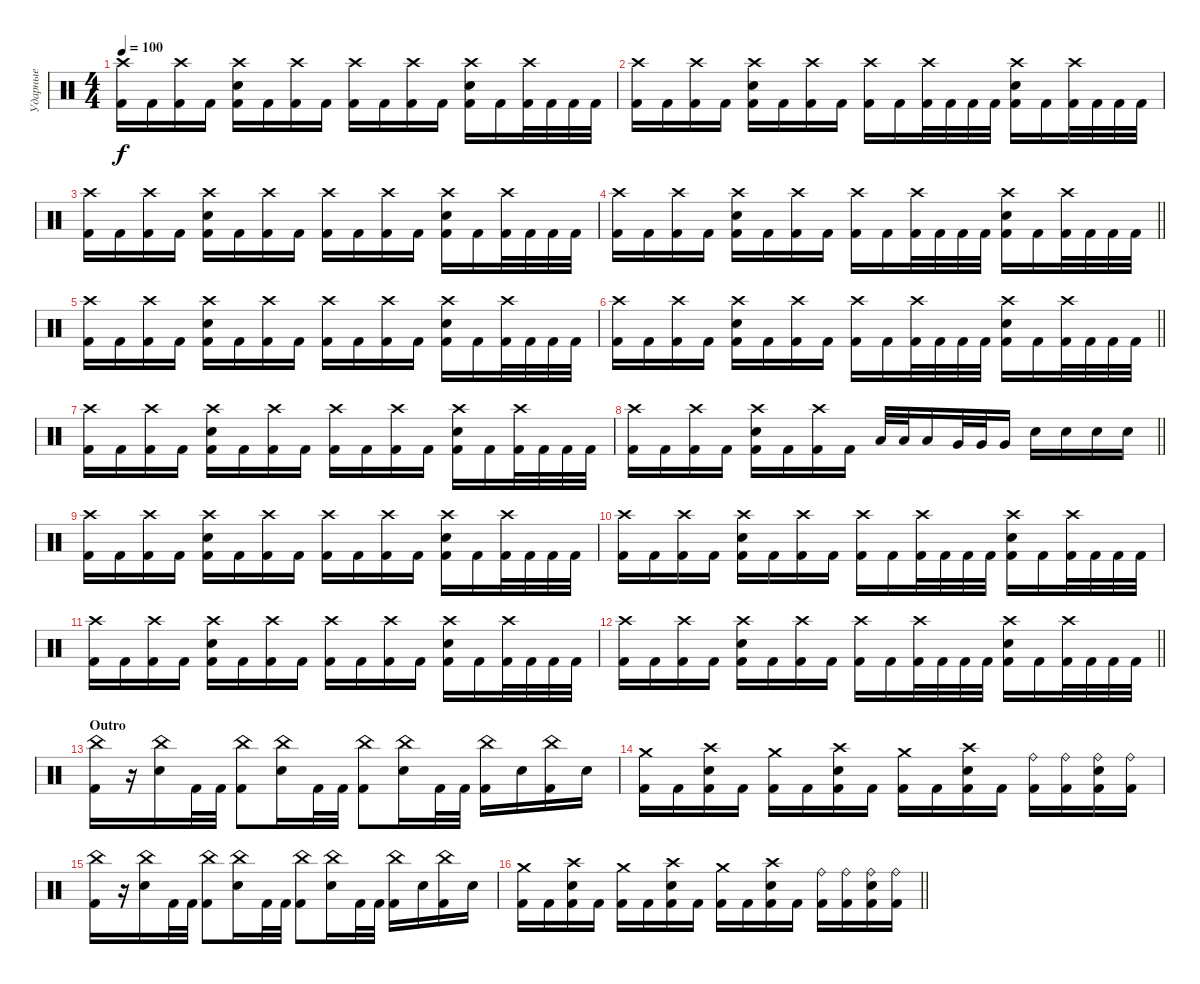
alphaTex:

\track ("Ударные" "Ударные") {instrument percussion}
\staff {score}
\articulation defaults
\ts (4 4)
\tempo 100
\clef neutral
\ks c
("Crash high (hit)" "Kick (hit) 2").16{dy f} "Kick (hit) 2".16 ("Crash high (hit)" "Kick (hit) 2").16 "Kick (hit) 2".16 ("Crash high (hit)" "Electric Snare (hit)" "Kick (hit) 2").16 "Kick (hit) 2".16 ("Crash high (hit)" "Kick (hit) 2").16 "Kick (hit) 2".16 ("Crash high (hit)" "Kick (hit) 2").16 "Kick (hit) 2".16 ("Crash high (hit)" "Kick (hit) 2").16 "Kick (hit) 2".16 ("Crash high (hit)" "Electric Snare (hit)" "Kick (hit) 2").16 "Kick (hit) 2".16 ("Crash high (hit)" "Kick (hit) 2").32 "Kick (hit) 2".32 "Kick (hit) 2".32 "Kick (hit) 2".32 |
("Crash high (hit)" "Kick (hit) 2").16 "Kick (hit) 2".16 ("Crash high (hit)" "Kick (hit) 2").16 "Kick (hit) 2".16 ("Crash high (hit)" "Electric Snare (hit)" "Kick (hit) 2").16 "Kick (hit) 2".16 ("Crash high (hit)" "Kick (hit) 2").16 "Kick (hit) 2".16 ("Crash high (hit)" "Kick (hit) 2").16 "Kick (hit) 2".16 ("Crash high (hit)" "Kick (hit) 2").32 "Kick (hit) 2".32 "Kick (hit) 2".32 "Kick (hit) 2".32 ("Crash high (hit)" "Electric Snare (hit)" "Kick (hit) 2").16 "Kick (hit) 2".16 ("Crash high (hit)" "Kick (hit) 2").32 "Kick (hit) 2".32 "Kick (hit) 2".32 "Kick (hit) 2".32 |
("Crash high (hit)" "Kick (hit) 2").16 "Kick (hit) 2".16 ("Crash high (hit)" "Kick (hit) 2").16 "Kick (hit) 2".16 ("Crash high (hit)" "Electric Snare (hit)" "Kick (hit) 2").16 "Kick (hit) 2".16 ("Crash high (hit)" "Kick (hit) 2").16 "Kick (hit) 2".16 ("Crash high (hit)" "Kick (hit) 2").16 "Kick (hit) 2".16 ("Crash high (hit)" "Kick (hit) 2").16 "Kick (hit) 2".16 ("Crash high (hit)" "Electric Snare (hit)" "Kick (hit) 2").16 "Kick (hit) 2".16 ("Crash high (hit)" "Kick (hit) 2").32 "Kick (hit) 2".32 "Kick (hit) 2".32 "Kick (hit) 2".32 |
\barLineRight lightlight
("Crash high (hit)" "Kick (hit) 2").16 "Kick (hit) 2".16 ("Crash high (hit)" "Kick (hit) 2").16 "Kick (hit) 2".16 ("Crash high (hit)" "Electric Snare (hit)" "Kick (hit) 2").16 "Kick (hit) 2".16 ("Crash high (hit)" "Kick (hit) 2").16 "Kick (hit) 2".16 ("Crash high (hit)" "Kick (hit) 2").16 "Kick (hit) 2".16 ("Crash high (hit)" "Kick (hit) 2").32 "Kick (hit) 2".32 "Kick (hit) 2".32 "Kick (hit) 2".32 ("Crash high (hit)" "Electric Snare (hit)" "Kick (hit) 2").16 "Kick (hit) 2".16 ("Crash high (hit)" "Kick (hit) 2").32 "Kick (hit) 2".32 "Kick (hit) 2".32 "Kick (hit) 2".32 |
\section ("" "")
("Crash high (hit)" "Kick (hit) 2").16 "Kick (hit) 2".16 ("Crash high (hit)" "Kick (hit) 2").16 "Kick (hit) 2".16 ("Crash high (hit)" "Electric Snare (hit)" "Kick (hit) 2").16 "Kick (hit) 2".16 ("Crash high (hit)" "Kick (hit) 2").16 "Kick (hit) 2".16 ("Crash high (hit)" "Kick (hit) 2").16 "Kick (hit) 2".16 ("Crash high (hit)" "Kick (hit) 2").16 "Kick (hit) 2".16 ("Crash high (hit)" "Electric Snare (hit)" "Kick (hit) 2").16 "Kick (hit) 2".16 ("Crash high (hit)" "Kick (hit) 2").32 "Kick (hit) 2".32 "Kick (hit) 2".32 "Kick (hit) 2".32 |
\barLineRight lightlight
("Crash high (hit)" "Kick (hit) 2").16 "Kick (hit) 2".16 ("Crash high (hit)" "Kick (hit) 2").16 "Kick (hit) 2".16 ("Crash high (hit)" "Electric Snare (hit)" "Kick (hit) 2").16 "Kick (hit) 2".16 ("Crash high (hit)" "Kick (hit) 2").16 "Kick (hit) 2".16 ("Crash high (hit)" "Kick (hit) 2").16 "Kick (hit) 2".16 ("Crash high (hit)" "Kick (hit) 2").32 "Kick (hit) 2".32 "Kick (hit) 2".32 "Kick (hit) 2".32 ("Crash high (hit)" "Electric Snare (hit)" "Kick (hit) 2").16 "Kick (hit) 2".16 ("Crash high (hit)" "Kick (hit) 2").32 "Kick (hit) 2".32 "Kick (hit) 2".32 "Kick (hit) 2".32 |
\section ("" "")
("Crash high (hit)" "Kick (hit) 2").16 "Kick (hit) 2".16 ("Crash high (hit)" "Kick (hit) 2").16 "Kick (hit) 2".16 ("Crash high (hit)" "Electric Snare (hit)" "Kick (hit) 2").16 "Kick (hit) 2".16 ("Crash high (hit)" "Kick (hit) 2").16 "Kick (hit) 2".16 ("Crash high (hit)" "Kick (hit) 2").16 "Kick (hit) 2".16 ("Crash high (hit)" "Kick (hit) 2").16 "Kick (hit) 2".16 ("Crash high (hit)" "Electric Snare (hit)" "Kick (hit) 2").16 "Kick (hit) 2".16 ("Crash high (hit)" "Kick (hit) 2").32 "Kick (hit) 2".32 "Kick (hit) 2".32 "Kick (hit) 2".32 |
\barLineRight lightlight
("Crash high (hit)" "Kick (hit) 2").16 "Kick (hit) 2".16 ("Crash high (hit)" "Kick (hit) 2").16 "Kick (hit) 2".16 ("Crash high (hit)" "Electric Snare (hit)" "Kick (hit) 2").16 "Kick (hit) 2".16 ("Crash high (hit)" "Kick (hit) 2").16 "Kick (hit) 2".16 "Low Tom (hit)".32 "Low Tom (hit)".32 "Low Tom (hit)".16 "Very Low Tom (hit)".32 "Very Low Tom (hit)".32 "Very Low Tom (hit)".16 "Electric Snare (hit)".16 "Electric Snare (hit)".16 "Electric Snare (hit)".16 "Electric Snare (hit)".16 |
("Crash high (hit)" "Kick (hit) 2").16 "Kick (hit) 2".16 ("Crash high (hit)" "Kick (hit) 2").16 "Kick (hit) 2".16 ("Crash high (hit)" "Electric Snare (hit)" "Kick (hit) 2").16 "Kick (hit) 2".16 ("Crash high (hit)" "Kick (hit) 2").16 "Kick (hit) 2".16 ("Crash high (hit)" "Kick (hit) 2").16 "Kick (hit) 2".16 ("Crash high (hit)" "Kick (hit) 2").16 "Kick (hit) 2".16 ("Crash high (hit)" "Electric Snare (hit)" "Kick (hit) 2").16 "Kick (hit) 2".16 ("Crash high (hit)" "Kick (hit) 2").32 "Kick (hit) 2".32 "Kick (hit) 2".32 "Kick (hit) 2".32 |
("Crash high (hit)" "Kick (hit) 2").16 "Kick (hit) 2".16 ("Crash high (hit)" "Kick (hit) 2").16 "Kick (hit) 2".16 ("Crash high (hit)" "Electric Snare (hit)" "Kick (hit) 2").16 "Kick (hit) 2".16 ("Crash high (hit)" "Kick (hit) 2").16 "Kick (hit) 2".16 ("Crash high (hit)" "Kick (hit) 2").16 "Kick (hit) 2".16 ("Crash high (hit)" "Kick (hit) 2").32 "Kick (hit) 2".32 "Kick (hit) 2".32 "Kick (hit) 2".32 ("Crash high (hit)" "Electric Snare (hit)" "Kick (hit) 2").16 "Kick (hit) 2".16 ("Crash high (hit)" "Kick (hit) 2").32 "Kick (hit) 2".32 "Kick (hit) 2".32 "Kick (hit) 2".32 |
("Crash high (hit)" "Kick (hit) 2").16 "Kick (hit) 2".16 ("Crash high (hit)" "Kick (hit) 2").16 "Kick (hit) 2".16 ("Crash high (hit)" "Electric Snare (hit)" "Kick (hit) 2").16 "Kick (hit) 2".16 ("Crash high (hit)" "Kick (hit) 2").16 "Kick (hit) 2".16 ("Crash high (hit)" "Kick (hit) 2").16 "Kick (hit) 2".16 ("Crash high (hit)" "Kick (hit) 2").16 "Kick (hit) 2".16 ("Crash high (hit)" "Electric Snare (hit)" "Kick (hit) 2").16 "Kick (hit) 2".16 ("Crash high (hit)" "Kick (hit) 2").32 "Kick (hit) 2".32 "Kick (hit) 2".32 "Kick (hit) 2".32 |
\barLineRight lightlight
("Crash high (hit)" "Kick (hit) 2").16 "Kick (hit) 2".16 ("Crash high (hit)" "Kick (hit) 2").16 "Kick (hit) 2".16 ("Crash high (hit)" "Electric Snare (hit)" "Kick (hit) 2").16 "Kick (hit) 2".16 ("Crash high (hit)" "Kick (hit) 2").16 "Kick (hit) 2".16 ("Crash high (hit)" "Kick (hit) 2").16 "Kick (hit) 2".16 ("Crash high (hit)" "Kick (hit) 2").32 "Kick (hit) 2".32 "Kick (hit) 2".32 "Kick (hit) 2".32 ("Crash high (hit)" "Electric Snare (hit)" "Kick (hit) 2").16 "Kick (hit) 2".16 ("Crash high (hit)" "Kick (hit) 2").32 "Kick (hit) 2".32 "Kick (hit) 2".32 "Kick (hit) 2".32 |
\section ("" "Outro")
("China (hit)" "Kick (hit) 2").16 r.16 ("China (hit)" "Electric Snare (hit)").16 "Kick (hit) 2".32 "Kick (hit) 2".32 ("China (hit)" "Kick (hit) 2").8 ("China (hit)" "Electric Snare (hit)").16 "Kick (hit) 2".32 "Kick (hit) 2".32 ("China (hit)" "Kick (hit) 2").8 ("China (hit)" "Electric Snare (hit)").16 "Kick (hit) 2".32 "Kick (hit) 2".32 ("China (hit)" "Kick (hit) 2").16 "Electric Snare (hit)".16 ("China (hit)" "Kick (hit) 2").16 "Electric Snare (hit)".16 |
("Crash medium (hit)" "Kick (hit) 2").16 "Kick (hit) 2".16 ("Crash high (hit)" "Electric Snare (hit)" "Kick (hit) 2").16 "Kick (hit) 2".16 ("Crash medium (hit)" "Kick (hit) 2").16 "Kick (hit) 2".16 ("Crash high (hit)" "Electric Snare (hit)" "Kick (hit) 2").16 "Kick (hit) 2".16 ("Crash medium (hit)" "Kick (hit) 2").16 "Kick (hit) 2".16 ("Crash high (hit)" "Electric Snare (hit)" "Kick (hit) 2").16 "Kick (hit) 2".16 ("Ride (bell)" "Kick (hit) 2").16 ("Ride (bell)" "Kick (hit) 2").16 ("Ride (bell)" "Electric Snare (hit)" "Kick (hit) 2").16 ("Ride (bell)" "Kick (hit) 2").16 |
("China (hit)" "Kick (hit) 2").16 r.16 ("China (hit)" "Electric Snare (hit)").16 "Kick (hit) 2".32 "Kick (hit) 2".32 ("China (hit)" "Kick (hit) 2").8 ("China (hit)" "Electric Snare (hit)").16 "Kick (hit) 2".32 "Kick (hit) 2".32 ("China (hit)" "Kick (hit) 2").8 ("China (hit)" "Electric Snare (hit)").16 "Kick (hit) 2".32 "Kick (hit) 2".32 ("China (hit)" "Kick (hit) 2").16 "Electric Snare (hit)".16 ("China (hit)" "Kick (hit) 2").16 "Electric Snare (hit)".16 |
\barLineRight lightlight
("Crash medium (hit)" "Kick (hit) 2").16 "Kick (hit) 2".16 ("Crash high (hit)" "Electric Snare (hit)" "Kick (hit) 2").16 "Kick (hit) 2".16 ("Crash medium (hit)" "Kick (hit) 2").16 "Kick (hit) 2".16 ("Crash high (hit)" "Electric Snare (hit)" "Kick (hit) 2").16 "Kick (hit) 2".16 ("Crash medium (hit)" "Kick (hit) 2").16 "Kick (hit) 2".16 ("Crash high (hit)" "Electric Snare (hit)" "Kick (hit) 2").16 "Kick (hit) 2".16 ("Ride (bell)" "Kick (hit) 2").16 ("Ride (bell)" "Kick (hit) 2").16 ("Ride (bell)" "Electric Snare (hit)" "Kick (hit) 2").16 ("Ride (bell)" "Kick (hit) 2").16
